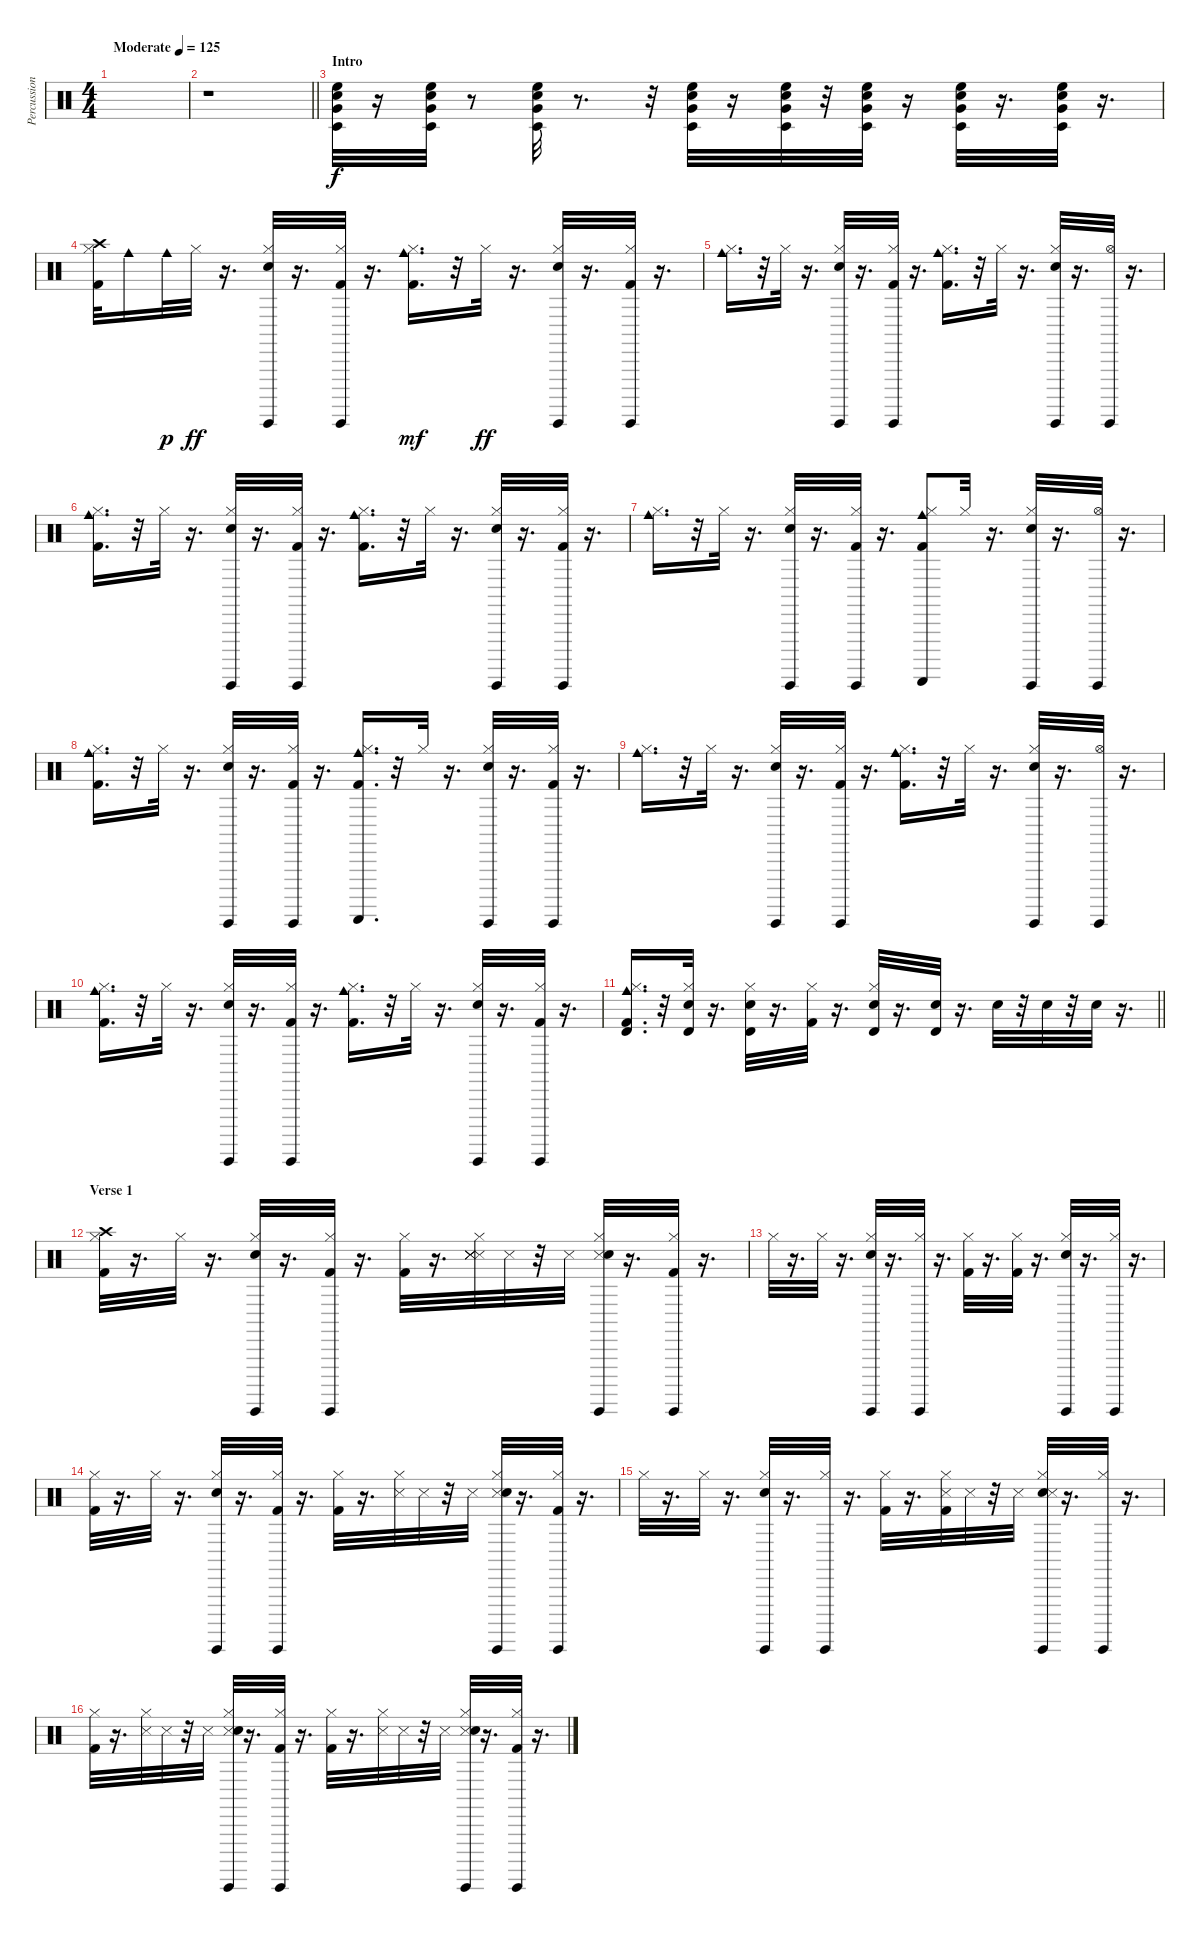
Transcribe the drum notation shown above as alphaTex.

\track ("Percussion" "Percussion") {instrument percussion}
\staff {score}
\articulation defaults
\ts (4 4)
\tempo (125 "Moderate")
\clef neutral
\ks c
|
\barLineRight lightlight
r.1 |
\section ("" "Intro")
("Very Low Tom (hit)" "Timbale low (hit)" "Electric Snare (hit)" "High Floor Tom (hit)").32 r.16 ("Very Low Tom (hit)" "Timbale low (hit)" "Electric Snare (hit)" "High Floor Tom (hit)").32 r.8 ("Very Low Tom (hit)" "Timbale low (hit)" "High Floor Tom (hit)" "Electric Snare (hit)").32 r.8{d} r.32 ("Very Low Tom (hit)" "Electric Snare (hit)" "Timbale low (hit)" "High Floor Tom (hit)").32 r.16 ("Timbale low (hit)" "Electric Snare (hit)" "High Floor Tom (hit)" "Very Low Tom (hit)").32 r.32 ("High Floor Tom (hit)" "Timbale low (hit)" "Electric Snare (hit)" "Very Low Tom (hit)").32 r.16 ("Very Low Tom (hit)" "High Floor Tom (hit)" "Electric Snare (hit)" "Timbale low (hit)").32 r.16{d} ("Very Low Tom (hit)" "Electric Snare (hit)" "High Floor Tom (hit)" "Timbale low (hit)").32 r.16{d} |
("Kick (hit) 2" "Hi-Hat (closed)" "Crash high (hit)").32 "Cowbell medium (hit)".16 "Cowbell medium (hit)".32{dy p} "Hi-Hat (closed)".32{dy ff} r.16{d} ("Guiro (hit)" "Snare (hit) 2" "Hi-Hat (closed)").32 r.16{d} ("Hi-Hat (closed)" "Kick (hit) 2" "Guiro (hit)").32 r.16{d} ("Kick (hit) 2" "Hi-Hat (closed)" "Cowbell medium (hit)").16{d dy mf} r.32 "Hi-Hat (closed)".32{dy ff} r.16{d} ("Hi-Hat (closed)" "Guiro (hit)" "Snare (hit) 2").32 r.16{d} ("Kick (hit) 2" "Guiro (hit)" "Hi-Hat (closed)").32 r.16{d} |
("Cowbell medium (hit)" "Hi-Hat (closed)").16{d} r.32 "Hi-Hat (closed)".32 r.16{d} ("Guiro (hit)" "Snare (hit) 2" "Hi-Hat (closed)").32 r.16{d} ("Hi-Hat (closed)" "Kick (hit) 2" "Guiro (hit)").32 r.16{d} ("Kick (hit) 2" "Hi-Hat (closed)" "Cowbell medium (hit)").16{d} r.32 "Hi-Hat (closed)".32 r.16{d} ("Guiro (hit)" "Snare (hit) 2" "Hi-Hat (closed)").32 r.16{d} ("Hi-Hat (open)" "Guiro (hit)").32 r.16{d} |
("Kick (hit) 2" "Hi-Hat (closed)" "Cowbell medium (hit)").16{d} r.32 "Hi-Hat (closed)".32 r.16{d} ("Guiro (hit)" "Snare (hit) 2" "Hi-Hat (closed)").32 r.16{d} ("Hi-Hat (closed)" "Kick (hit) 2" "Guiro (hit)").32 r.16{d} ("Kick (hit) 2" "Hi-Hat (closed)" "Cowbell medium (hit)").16{d} r.32 "Hi-Hat (closed)".32 r.16{d} ("Guiro (hit)" "Snare (hit) 2" "Hi-Hat (closed)").32 r.16{d} ("Guiro (hit)" "Hi-Hat (closed)" "Kick (hit) 2").32 r.16{d} |
("Hi-Hat (closed)" "Cowbell medium (hit)").16{d} r.32 "Hi-Hat (closed)".32 r.16{d} ("Guiro (hit)" "Snare (hit) 2" "Hi-Hat (closed)").32 r.16{d} ("Hi-Hat (closed)" "Kick (hit) 2" "Guiro (hit)").32 r.16{d} ("Cowbell medium (hit)" "Guiro (scrap-return)" "Kick (hit) 2" "Hi-Hat (closed)").8 "Hi-Hat (closed)".32 r.16{d} ("Guiro (hit)" "Snare (hit) 2" "Hi-Hat (closed)").32 r.16{d} ("Hi-Hat (open)" "Guiro (hit)").32 r.16{d} |
("Kick (hit) 2" "Hi-Hat (closed)" "Cowbell medium (hit)").16{d} r.32 "Hi-Hat (closed)".32 r.16{d} ("Guiro (hit)" "Snare (hit) 2" "Hi-Hat (closed)").32 r.16{d} ("Hi-Hat (closed)" "Kick (hit) 2" "Guiro (hit)").32 r.16{d} ("Cowbell medium (hit)" "Guiro (scrap-return)" "Kick (hit) 2" "Hi-Hat (closed)").16{d} r.32 "Hi-Hat (closed)".32 r.16{d} ("Guiro (hit)" "Snare (hit) 2" "Hi-Hat (closed)").32 r.16{d} ("Guiro (hit)" "Hi-Hat (closed)" "Kick (hit) 2").32 r.16{d} |
("Cowbell medium (hit)" "Hi-Hat (closed)").16{d} r.32 "Hi-Hat (closed)".32 r.16{d} ("Guiro (hit)" "Snare (hit) 2" "Hi-Hat (closed)").32 r.16{d} ("Hi-Hat (closed)" "Kick (hit) 2" "Guiro (hit)").32 r.16{d} ("Kick (hit) 2" "Hi-Hat (closed)" "Cowbell medium (hit)").16{d} r.32 "Hi-Hat (closed)".32 r.16{d} ("Guiro (hit)" "Snare (hit) 2" "Hi-Hat (closed)").32 r.16{d} ("Hi-Hat (open)" "Guiro (hit)").32 r.16{d} |
("Kick (hit) 2" "Hi-Hat (closed)" "Cowbell medium (hit)").16{d} r.32 "Hi-Hat (closed)".32 r.16{d} ("Guiro (hit)" "Snare (hit) 2" "Hi-Hat (closed)").32 r.16{d} ("Hi-Hat (closed)" "Kick (hit) 2" "Guiro (hit)").32 r.16{d} ("Kick (hit) 2" "Hi-Hat (closed)" "Cowbell medium (hit)").16{d} r.32 "Hi-Hat (closed)".32 r.16{d} ("Guiro (hit)" "Snare (hit) 2" "Hi-Hat (closed)").32 r.16{d} ("Guiro (hit)" "Hi-Hat (closed)" "Kick (hit) 2").32 r.16{d} |
\barLineRight lightlight
("Hi-Hat (closed)" "Kick (hit) 2" "Timbale high (hit)" "Cowbell medium (hit)").16{d} r.32 ("Hi-Hat (closed)" "Electric Snare (hit)" "Timbale high (hit)").32 r.16{d} ("Hi-Hat (closed)" "Electric Snare (hit)" "Timbale high (hit)").32 r.16{d} ("Hi-Hat (closed)" "Kick (hit) 2").32 r.16{d} ("Hi-Hat (closed)" "Timbale high (hit)" "Electric Snare (hit)").32 r.16{d} ("Electric Snare (hit)" "Timbale high (hit)").32 r.16{d} "Electric Snare (hit)".32 r.32 "Electric Snare (hit)".32 r.32 "Electric Snare (hit)".32 r.16{d} |
\section ("" "Verse 1")
("Hi-Hat (closed)" "Crash high (hit)" "Kick (hit) 2").32 r.16{d} "Hi-Hat (closed)".32 r.16{d} ("Guiro (hit)" "Hi-Hat (closed)" "Snare (hit) 2").32 r.16{d} ("Guiro (hit)" "Hi-Hat (closed)" "Kick (hit) 2").32 r.16{d} ("Hi-Hat (closed)" "Kick (hit) 2").32 r.16{d} ("Hi-Hat (closed)" "Snare (side stick) 3" "Snare (side stick) 3" "Snare (side stick) 3" "Snare (side stick) 3").32 "Snare (side stick) 3".32 r.32 "Snare (side stick) 3".32 ("Snare (side stick) 3" "Guiro (hit)" "Hi-Hat (closed)" "Snare (hit) 2").32 r.16{d} ("Guiro (hit)" "Hi-Hat (closed)" "Kick (hit) 2").32 r.16{d} |
"Hi-Hat (closed)".32 r.16{d} "Hi-Hat (closed)".32 r.16{d} ("Snare (hit) 2" "Guiro (hit)" "Hi-Hat (closed)").32 r.16{d} ("Guiro (hit)" "Hi-Hat (closed)").32 r.16{d} ("Hi-Hat (closed)" "Kick (hit) 2").32 r.16{d} ("Hi-Hat (closed)" "Kick (hit) 2").32 r.16{d} ("Guiro (hit)" "Hi-Hat (closed)" "Snare (hit) 2").32 r.16{d} ("Guiro (hit)" "Hi-Hat (closed)").32 r.16{d} |
("Hi-Hat (closed)" "Kick (hit) 2").32 r.16{d} "Hi-Hat (closed)".32 r.16{d} ("Guiro (hit)" "Hi-Hat (closed)" "Snare (hit) 2").32 r.16{d} ("Guiro (hit)" "Hi-Hat (closed)" "Kick (hit) 2").32 r.16{d} ("Hi-Hat (closed)" "Kick (hit) 2").32 r.16{d} ("Hi-Hat (closed)" "Snare (side stick) 3").32 "Snare (side stick) 3".32 r.32 "Snare (side stick) 3".32 ("Guiro (hit)" "Snare (side stick) 3" "Hi-Hat (closed)" "Snare (hit) 2").32 r.16{d} ("Guiro (hit)" "Hi-Hat (closed)" "Kick (hit) 2").32 r.16{d} |
"Hi-Hat (closed)".32 r.16{d} "Hi-Hat (closed)".32 r.16{d} ("Guiro (hit)" "Hi-Hat (closed)" "Snare (hit) 2").32 r.16{d} ("Guiro (hit)" "Hi-Hat (closed)").32 r.16{d} ("Hi-Hat (closed)" "Kick (hit) 2").32 r.16{d} ("Hi-Hat (closed)" "Kick (hit) 2" "Snare (side stick) 3").32 "Snare (side stick) 3".32 r.32 "Snare (side stick) 3".32 ("Snare (hit) 2" "Guiro (hit)" "Hi-Hat (closed)" "Snare (side stick) 3").32 r.16{d} ("Guiro (hit)" "Hi-Hat (closed)").32 r.16{d} |
("Hi-Hat (closed)" "Kick (hit) 2").32 r.16{d} ("Hi-Hat (closed)" "Snare (side stick) 3").32 "Snare (side stick) 3".32 r.32 "Snare (side stick) 3".32 ("Guiro (hit)" "Snare (side stick) 3" "Hi-Hat (closed)" "Snare (hit) 2").32 r.16{d} ("Guiro (hit)" "Hi-Hat (closed)" "Kick (hit) 2").32 r.16{d} ("Hi-Hat (closed)" "Kick (hit) 2").32 r.16{d} ("Snare (side stick) 3" "Hi-Hat (closed)").32 "Snare (side stick) 3".32 r.32 "Snare (side stick) 3".32 ("Snare (side stick) 3" "Guiro (hit)" "Hi-Hat (closed)" "Snare (hit) 2").32 r.16{d} ("Guiro (hit)" "Hi-Hat (closed)" "Kick (hit) 2").32 r.16{d}
